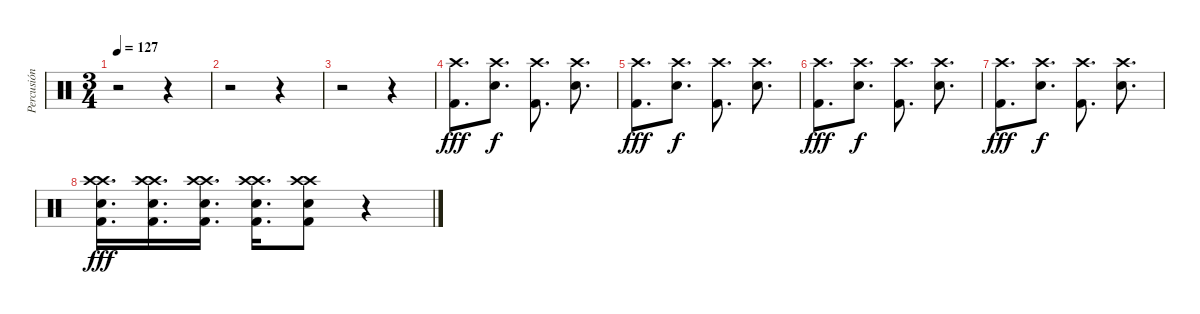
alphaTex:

\track ("Percusión" "Percusión") {instrument percussion}
\staff {score}
\articulation defaults
\ts (3 4)
\tempo 127
\clef neutral
\ks c
r.2{dy f} r.4 |
r.2 r.4 |
r.2 r.4 |
("Crash high (hit)" "Kick (hit) 2").8{d dy fff} ("Crash high (hit)" "Snare (hit) 2").8{d dy f} ("Crash high (hit)" "Kick (hit) 2").8{d} ("Crash high (hit)" "Snare (hit) 2").8{d} |
("Crash high (hit)" "Kick (hit) 2").8{d dy fff} ("Crash high (hit)" "Snare (hit) 2").8{d dy f} ("Crash high (hit)" "Kick (hit) 2").8{d} ("Crash high (hit)" "Snare (hit) 2").8{d} |
("Crash high (hit)" "Kick (hit) 2").8{d dy fff} ("Crash high (hit)" "Snare (hit) 2").8{d dy f} ("Crash high (hit)" "Kick (hit) 2").8{d} ("Crash high (hit)" "Snare (hit) 2").8{d} |
("Crash high (hit)" "Kick (hit) 2").8{d dy fff} ("Crash high (hit)" "Snare (hit) 2").8{d dy f} ("Crash high (hit)" "Kick (hit) 2").8{d} ("Crash high (hit)" "Snare (hit) 2").8{d} |
("Crash high (hit)" "Crash high (hit)" "Snare (hit) 2" "Kick (hit) 2").16{d dy fff} ("Crash high (hit)" "Crash high (hit)" "Snare (hit) 2" "Kick (hit) 2").16{d} ("Crash high (hit)" "Crash high (hit)" "Snare (hit) 2" "Kick (hit) 2").16{d} ("Crash high (hit)" "Crash high (hit)" "Snare (hit) 2" "Kick (hit) 2").16{d} ("Crash high (hit)" "Crash high (hit)" "Snare (hit) 2" "Kick (hit) 2").8 r.4
